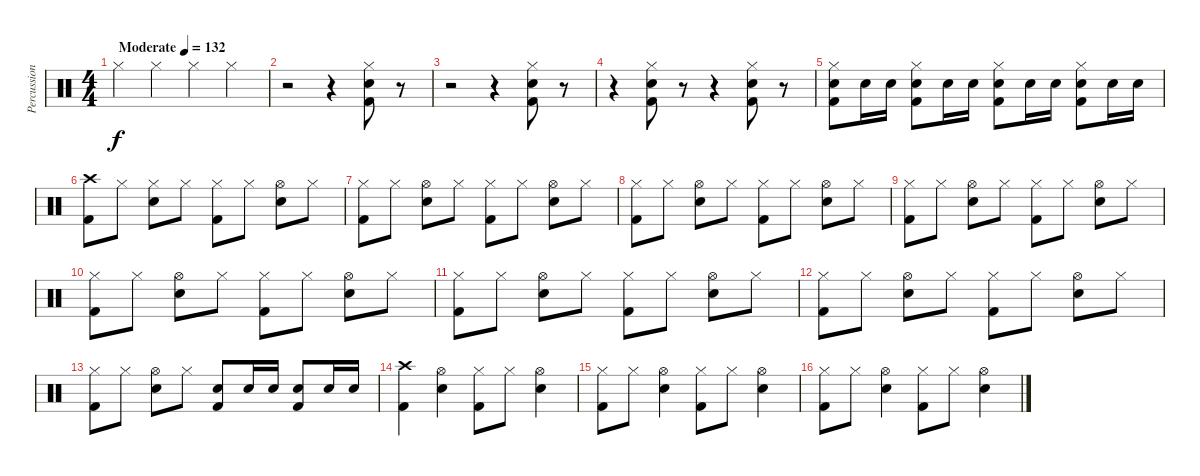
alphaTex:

\track ("Percussion" "Percussion") {instrument percussion}
\staff {score}
\articulation defaults
\ts (4 4)
\tempo (132 "Moderate")
\clef neutral
\ks c "Hi-Hat (closed)".4{dy f} "Hi-Hat (closed)".4 "Hi-Hat (closed)".4 "Hi-Hat (closed)".4
|
r.2 r.4 ("Hi-Hat (closed)" "Snare (hit) 2" "Kick (hit) 2").8 r.8 |
r.2 r.4 ("Hi-Hat (closed)" "Snare (hit) 2" "Kick (hit) 2").8 r.8 |
r.4 ("Hi-Hat (closed)" "Snare (hit) 2" "Kick (hit) 2").8 r.8 r.4 ("Hi-Hat (closed)" "Snare (hit) 2" "Kick (hit) 2").8 r.8 |
("Hi-Hat (closed)" "Snare (hit) 2" "Kick (hit) 2").8 "Snare (hit) 2".16 "Snare (hit) 2".16 ("Hi-Hat (closed)" "Snare (hit) 2" "Kick (hit) 2").8 "Snare (hit) 2".16 "Snare (hit) 2".16 ("Hi-Hat (closed)" "Snare (hit) 2" "Kick (hit) 2").8 "Snare (hit) 2".16 "Snare (hit) 2".16 ("Hi-Hat (closed)" "Snare (hit) 2" "Kick (hit) 2").8 "Snare (hit) 2".16 "Snare (hit) 2".16 |
("Crash high (hit)" "Kick (hit) 2").8 "Hi-Hat (closed)".8 ("Hi-Hat (closed)" "Snare (hit) 2").8 "Hi-Hat (closed)".8 ("Hi-Hat (closed)" "Kick (hit) 2").8 "Hi-Hat (closed)".8 ("Hi-Hat (open)" "Snare (hit) 2").8 "Hi-Hat (closed)".8 |
("Hi-Hat (closed)" "Kick (hit) 2").8 "Hi-Hat (closed)".8 ("Hi-Hat (open)" "Snare (hit) 2").8 "Hi-Hat (closed)".8 ("Hi-Hat (closed)" "Kick (hit) 2").8 "Hi-Hat (closed)".8 ("Hi-Hat (open)" "Snare (hit) 2").8 "Hi-Hat (closed)".8 |
("Hi-Hat (closed)" "Kick (hit) 2").8 "Hi-Hat (closed)".8 ("Hi-Hat (open)" "Snare (hit) 2").8 "Hi-Hat (closed)".8 ("Hi-Hat (closed)" "Kick (hit) 2").8 "Hi-Hat (closed)".8 ("Hi-Hat (open)" "Snare (hit) 2").8 "Hi-Hat (closed)".8 |
("Hi-Hat (closed)" "Kick (hit) 2").8 "Hi-Hat (closed)".8 ("Hi-Hat (open)" "Snare (hit) 2").8 "Hi-Hat (closed)".8 ("Hi-Hat (closed)" "Kick (hit) 2").8 "Hi-Hat (closed)".8 ("Hi-Hat (open)" "Snare (hit) 2").8 "Hi-Hat (closed)".8 |
("Hi-Hat (closed)" "Kick (hit) 2").8 "Hi-Hat (closed)".8 ("Hi-Hat (open)" "Snare (hit) 2").8 "Hi-Hat (closed)".8 ("Hi-Hat (closed)" "Kick (hit) 2").8 "Hi-Hat (closed)".8 ("Hi-Hat (open)" "Snare (hit) 2").8 "Hi-Hat (closed)".8 |
("Hi-Hat (closed)" "Kick (hit) 2").8 "Hi-Hat (closed)".8 ("Hi-Hat (open)" "Snare (hit) 2").8 "Hi-Hat (closed)".8 ("Hi-Hat (closed)" "Kick (hit) 2").8 "Hi-Hat (closed)".8 ("Hi-Hat (open)" "Snare (hit) 2").8 "Hi-Hat (closed)".8 |
("Hi-Hat (closed)" "Kick (hit) 2").8 "Hi-Hat (closed)".8 ("Hi-Hat (open)" "Snare (hit) 2").8 "Hi-Hat (closed)".8 ("Hi-Hat (closed)" "Kick (hit) 2").8 "Hi-Hat (closed)".8 ("Hi-Hat (open)" "Snare (hit) 2").8 "Hi-Hat (closed)".8 |
("Hi-Hat (closed)" "Kick (hit) 2").8 "Hi-Hat (closed)".8 ("Hi-Hat (open)" "Snare (hit) 2").8 "Hi-Hat (closed)".8 ("Snare (hit) 2" "Kick (hit) 2").8 "Snare (hit) 2".16 "Snare (hit) 2".16 ("Snare (hit) 2" "Kick (hit) 2").8 "Snare (hit) 2".16 "Snare (hit) 2".16 |
("Crash high (hit)" "Kick (hit) 2").4 ("Hi-Hat (open)" "Snare (hit) 2").4 ("Hi-Hat (closed)" "Kick (hit) 2").8 "Hi-Hat (closed)".8 ("Hi-Hat (open)" "Snare (hit) 2").4 |
("Hi-Hat (closed)" "Kick (hit) 2").8 "Hi-Hat (closed)".8 ("Hi-Hat (open)" "Snare (hit) 2").4 ("Hi-Hat (closed)" "Kick (hit) 2").8 "Hi-Hat (closed)".8 ("Hi-Hat (open)" "Snare (hit) 2").4 |
("Hi-Hat (closed)" "Kick (hit) 2").8 "Hi-Hat (closed)".8 ("Hi-Hat (open)" "Snare (hit) 2").4 ("Hi-Hat (closed)" "Kick (hit) 2").8 "Hi-Hat (closed)".8 ("Hi-Hat (open)" "Snare (hit) 2").4
